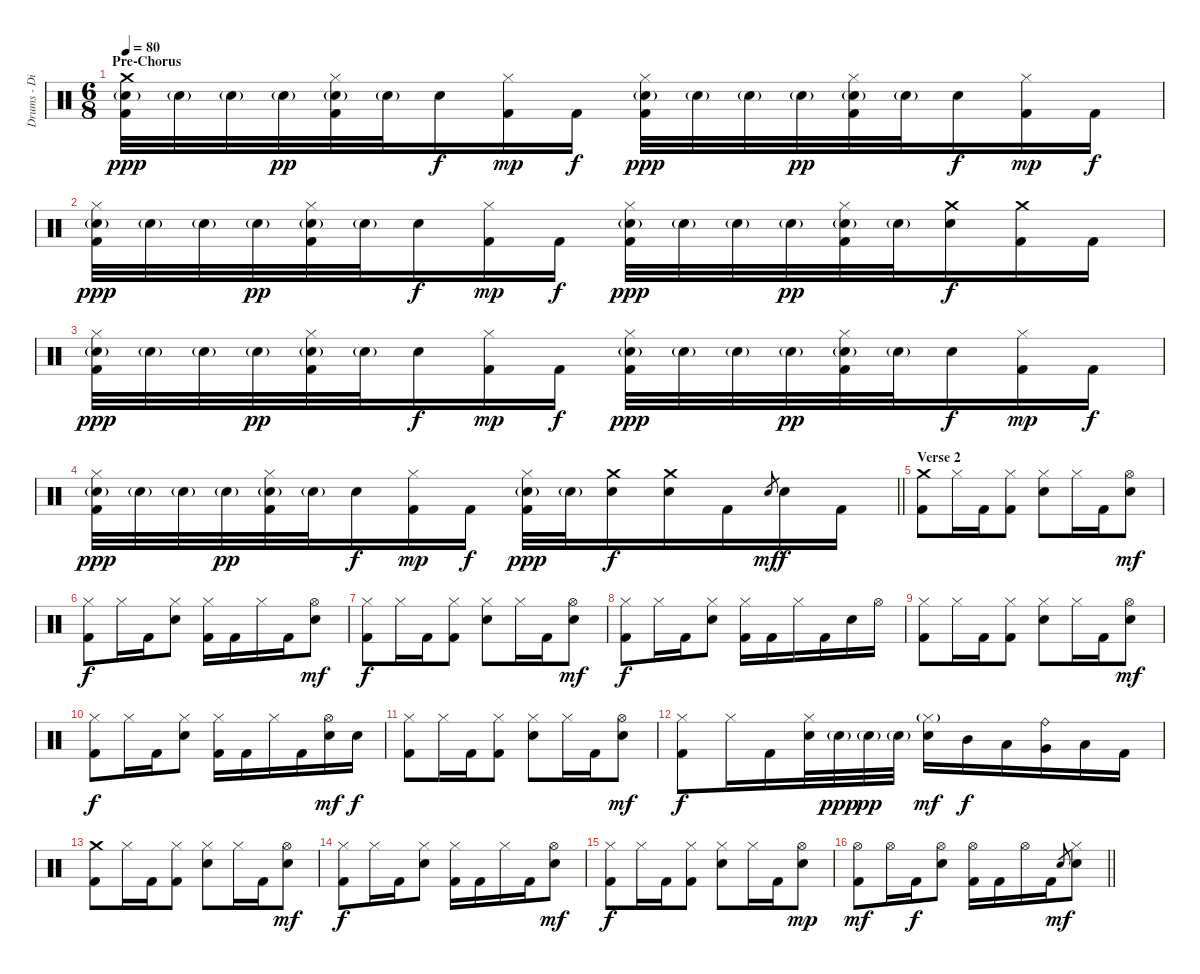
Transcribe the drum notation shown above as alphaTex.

\track ("Drums - Dino Campanella" "Drums - Di") {instrument percussion}
\staff {score}
\articulation defaults
\ts (6 8)
\section ("" "Pre-Chorus")
\tempo 80
\clef neutral
\ks c
("Crash medium (hit)" "Snare (hit) 2"{g} "Kick (hit) 2").32{dy ppp} "Snare (hit) 2"{g}.32 "Snare (hit) 2"{g}.32 "Snare (hit) 2"{g}.32{dy pp} ("Hi-Hat (closed)" "Snare (hit) 2"{g} "Kick (hit) 2").32 "Snare (hit) 2"{g}.32 "Electric Snare (hit)".16{dy f} ("Hi-Hat (closed)" "Kick (hit) 2").16{dy mp} "Kick (hit) 2".16{dy f} ("Hi-Hat (closed)" "Snare (hit) 2"{g} "Kick (hit) 2").32{dy ppp} "Snare (hit) 2"{g}.32 "Snare (hit) 2"{g}.32 "Snare (hit) 2"{g}.32{dy pp} ("Hi-Hat (closed)" "Snare (hit) 2"{g} "Kick (hit) 2").32 "Snare (hit) 2"{g}.32 "Electric Snare (hit)".16{dy f} ("Hi-Hat (closed)" "Kick (hit) 2").16{dy mp} "Kick (hit) 2".16{dy f} |
("Hi-Hat (closed)" "Snare (hit) 2"{g} "Kick (hit) 2").32{dy ppp} "Snare (hit) 2"{g}.32 "Snare (hit) 2"{g}.32 "Snare (hit) 2"{g}.32{dy pp} ("Hi-Hat (closed)" "Snare (hit) 2"{g} "Kick (hit) 2").32 "Snare (hit) 2"{g}.32 "Electric Snare (hit)".16{dy f} ("Hi-Hat (closed)" "Kick (hit) 2").16{dy mp} "Kick (hit) 2".16{dy f} ("Hi-Hat (closed)" "Snare (hit) 2"{g} "Kick (hit) 2").32{dy ppp} "Snare (hit) 2"{g}.32 "Snare (hit) 2"{g}.32 "Snare (hit) 2"{g}.32{dy pp} ("Hi-Hat (closed)" "Snare (hit) 2"{g} "Kick (hit) 2").32 "Snare (hit) 2"{g}.32 ("Crash medium (hit)" "Electric Snare (hit)").16{dy f} ("Crash medium (hit)" "Kick (hit) 2").16 "Kick (hit) 2".16 |
("Hi-Hat (closed)" "Snare (hit) 2"{g} "Kick (hit) 2").32{dy ppp} "Snare (hit) 2"{g}.32 "Snare (hit) 2"{g}.32 "Snare (hit) 2"{g}.32{dy pp} ("Hi-Hat (closed)" "Snare (hit) 2"{g} "Kick (hit) 2").32 "Snare (hit) 2"{g}.32 "Electric Snare (hit)".16{dy f} ("Hi-Hat (closed)" "Kick (hit) 2").16{dy mp} "Kick (hit) 2".16{dy f} ("Hi-Hat (closed)" "Snare (hit) 2"{g} "Kick (hit) 2").32{dy ppp} "Snare (hit) 2"{g}.32 "Snare (hit) 2"{g}.32 "Snare (hit) 2"{g}.32{dy pp} ("Hi-Hat (closed)" "Snare (hit) 2"{g} "Kick (hit) 2").32 "Snare (hit) 2"{g}.32 "Electric Snare (hit)".16{dy f} ("Hi-Hat (closed)" "Kick (hit) 2").16{dy mp} "Kick (hit) 2".16{dy f} |
\barLineRight lightlight
("Hi-Hat (closed)" "Snare (hit) 2"{g} "Kick (hit) 2").32{dy ppp} "Snare (hit) 2"{g}.32 "Snare (hit) 2"{g}.32 "Snare (hit) 2"{g}.32{dy pp} ("Hi-Hat (closed)" "Snare (hit) 2"{g} "Kick (hit) 2").32 "Snare (hit) 2"{g}.32 "Electric Snare (hit)".16{dy f} ("Hi-Hat (closed)" "Kick (hit) 2").16{dy mp} "Kick (hit) 2".16{dy f} ("Hi-Hat (closed)" "Snare (hit) 2"{g} "Kick (hit) 2").32{dy ppp} "Snare (hit) 2"{g}.32 ("Crash medium (hit)" "Electric Snare (hit)").16{dy f} ("Crash medium (hit)" "Electric Snare (hit)").16 "Kick (hit) 2".16 "Electric Snare (hit)".8{gr dy mf} "Electric Snare (hit)".16{dy f} "Kick (hit) 2".16 |
\section ("" "Verse 2")
("Crash medium (hit)" "Kick (hit) 2").8 "Hi-Hat (closed)".16 "Kick (hit) 2".16 ("Hi-Hat (closed)" "Kick (hit) 2").8 ("Hi-Hat (closed)" "Electric Snare (hit)").8 "Hi-Hat (closed)".16 "Kick (hit) 2".16 ("Hi-Hat (open)" "Electric Snare (hit)").8{dy mf} |
("Hi-Hat (closed)" "Kick (hit) 2").8{dy f} "Hi-Hat (closed)".16 "Kick (hit) 2".16 ("Hi-Hat (closed)" "Electric Snare (hit)").8 ("Hi-Hat (closed)" "Kick (hit) 2").16 "Kick (hit) 2".16 "Hi-Hat (closed)".16 "Kick (hit) 2".16 ("Hi-Hat (open)" "Electric Snare (hit)").8{dy mf} |
("Hi-Hat (closed)" "Kick (hit) 2").8{dy f} "Hi-Hat (closed)".16 "Kick (hit) 2".16 ("Hi-Hat (closed)" "Kick (hit) 2").8 ("Hi-Hat (closed)" "Electric Snare (hit)").8 "Hi-Hat (closed)".16 "Kick (hit) 2".16 ("Hi-Hat (open)" "Electric Snare (hit)").8{dy mf} |
("Hi-Hat (closed)" "Kick (hit) 2").8{dy f} "Hi-Hat (closed)".16 "Kick (hit) 2".16 ("Hi-Hat (closed)" "Electric Snare (hit)").8 ("Hi-Hat (closed)" "Kick (hit) 2").16 "Kick (hit) 2".16 "Hi-Hat (closed)".16 "Kick (hit) 2".16 "Electric Snare (hit)".16 "Hi-Hat (open)".16 |
("Hi-Hat (closed)" "Kick (hit) 2").8 "Hi-Hat (closed)".16 "Kick (hit) 2".16 ("Hi-Hat (closed)" "Kick (hit) 2").8 ("Hi-Hat (closed)" "Electric Snare (hit)").8 "Hi-Hat (closed)".16 "Kick (hit) 2".16 ("Hi-Hat (open)" "Electric Snare (hit)").8{dy mf} |
("Hi-Hat (closed)" "Kick (hit) 2").8{dy f} "Hi-Hat (closed)".16 "Kick (hit) 2".16 ("Hi-Hat (closed)" "Electric Snare (hit)").8 ("Hi-Hat (closed)" "Kick (hit) 2").16 "Kick (hit) 2".16 "Hi-Hat (closed)".16 "Kick (hit) 2".16 ("Hi-Hat (open)" "Electric Snare (hit)").16{dy mf} "Electric Snare (hit)".16{dy f} |
("Hi-Hat (closed)" "Kick (hit) 2").8 "Hi-Hat (closed)".16 "Kick (hit) 2".16 ("Hi-Hat (closed)" "Kick (hit) 2").8 ("Hi-Hat (closed)" "Electric Snare (hit)").8 "Hi-Hat (closed)".16 "Kick (hit) 2".16 ("Hi-Hat (open)" "Electric Snare (hit)").8{dy mf} |
("Hi-Hat (closed)" "Kick (hit) 2").8{dy f} "Hi-Hat (closed)".16 "Kick (hit) 2".16 ("Hi-Hat (closed)" "Electric Snare (hit)").32 "Snare (hit) 2"{g}.32{dy ppp} "Snare (hit) 2"{g}.32{dy pp} "Snare (hit) 2"{g}.32 ("Hi-Hat (closed)"{g} "Electric Snare (hit)").16{dy mf} "Mid Tom (hit)".16{dy f} "Low Tom (hit)".16 ("Ride (bell)" "Very Low Tom (hit)").16 "Low Floor Tom (hit)".16 "Kick (hit) 2".16 |
("Crash medium (hit)" "Kick (hit) 2").8 "Hi-Hat (closed)".16 "Kick (hit) 2".16 ("Hi-Hat (closed)" "Kick (hit) 2").8 ("Hi-Hat (closed)" "Electric Snare (hit)").8 "Hi-Hat (closed)".16 "Kick (hit) 2".16 ("Hi-Hat (open)" "Electric Snare (hit)").8{dy mf} |
("Hi-Hat (closed)" "Kick (hit) 2").8{dy f} "Hi-Hat (closed)".16 "Kick (hit) 2".16 ("Hi-Hat (closed)" "Electric Snare (hit)").8 ("Hi-Hat (closed)" "Kick (hit) 2").16 "Kick (hit) 2".16 "Hi-Hat (closed)".16 "Kick (hit) 2".16 ("Hi-Hat (open)" "Electric Snare (hit)").8{dy mf} |
("Hi-Hat (closed)" "Kick (hit) 2").8{dy f} "Hi-Hat (closed)".16 "Kick (hit) 2".16 ("Hi-Hat (closed)" "Kick (hit) 2").8 ("Hi-Hat (closed)" "Electric Snare (hit)").8 "Hi-Hat (closed)".16 "Kick (hit) 2".16 ("Hi-Hat (open)" "Electric Snare (hit)").8{dy mp} |
\barLineRight lightlight
("Hi-Hat (open)" "Kick (hit) 2").8{dy mf} "Hi-Hat (open)".16 "Kick (hit) 2".16{dy f} ("Hi-Hat (open)" "Electric Snare (hit)").8 ("Hi-Hat (open)" "Kick (hit) 2").16 "Kick (hit) 2".16 "Hi-Hat (open)".16 "Kick (hit) 2".16 "Electric Snare (hit)".8{gr dy mf} ("Hi-Hat (closed)" "Electric Snare (hit)").8
